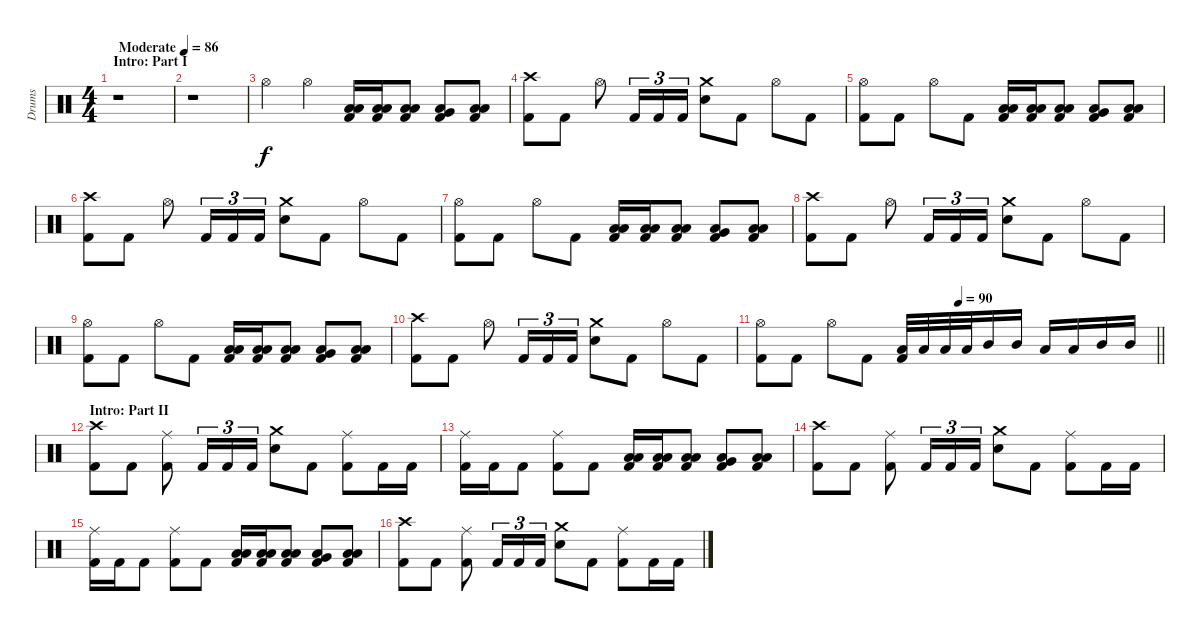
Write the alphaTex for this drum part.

\track ("Drums" "Drums") {instrument percussion}
\staff {score}
\articulation defaults
\ts (4 4)
\section ("" "Intro: Part I")
\tempo (86 "Moderate")
\clef neutral
\ks c
r.1{dy f} |
r.1 |
"Hi-Hat (open)".4 "Hi-Hat (open)".4 ("Low Tom (hit)" "Low Floor Tom (hit)" "Kick (hit) 2").16 ("Low Tom (hit)" "Low Floor Tom (hit)" "Kick (hit) 2").16 ("Low Tom (hit)" "Low Floor Tom (hit)" "Kick (hit) 2").8 ("Very Low Tom (hit)" "Low Floor Tom (hit)" "Kick (hit) 2").8 ("Low Tom (hit)" "Low Floor Tom (hit)" "Kick (hit) 2").8 |
("Crash high (hit)" "Kick (hit) 2").8 "Kick (hit) 2".8 "Hi-Hat (open)".8 "Kick (hit) 2".16{tu (3 2)} "Kick (hit) 2".16{tu (3 2)} "Kick (hit) 2".16{tu (3 2)} ("Crash medium (hit)" "Electric Snare (hit)").8 "Kick (hit) 2".8 "Hi-Hat (open)".8 "Kick (hit) 2".8 |
("Hi-Hat (open)" "Kick (hit) 2").8 "Kick (hit) 2".8 "Hi-Hat (open)".8 "Kick (hit) 2".8 ("Low Tom (hit)" "Low Floor Tom (hit)" "Kick (hit) 2").16 ("Low Tom (hit)" "Low Floor Tom (hit)" "Kick (hit) 2").16 ("Low Tom (hit)" "Low Floor Tom (hit)" "Kick (hit) 2").8 ("Very Low Tom (hit)" "Low Floor Tom (hit)" "Kick (hit) 2").8 ("Low Tom (hit)" "Low Floor Tom (hit)" "Kick (hit) 2").8 |
("Crash high (hit)" "Kick (hit) 2").8 "Kick (hit) 2".8 "Hi-Hat (open)".8 "Kick (hit) 2".16{tu (3 2)} "Kick (hit) 2".16{tu (3 2)} "Kick (hit) 2".16{tu (3 2)} ("Crash medium (hit)" "Electric Snare (hit)").8 "Kick (hit) 2".8 "Hi-Hat (open)".8 "Kick (hit) 2".8 |
("Hi-Hat (open)" "Kick (hit) 2").8 "Kick (hit) 2".8 "Hi-Hat (open)".8 "Kick (hit) 2".8 ("Low Tom (hit)" "Low Floor Tom (hit)" "Kick (hit) 2").16 ("Low Tom (hit)" "Low Floor Tom (hit)" "Kick (hit) 2").16 ("Low Tom (hit)" "Low Floor Tom (hit)" "Kick (hit) 2").8 ("Very Low Tom (hit)" "Low Floor Tom (hit)" "Kick (hit) 2").8 ("Low Tom (hit)" "Low Floor Tom (hit)" "Kick (hit) 2").8 |
("Crash high (hit)" "Kick (hit) 2").8 "Kick (hit) 2".8 "Hi-Hat (open)".8 "Kick (hit) 2".16{tu (3 2)} "Kick (hit) 2".16{tu (3 2)} "Kick (hit) 2".16{tu (3 2)} ("Crash medium (hit)" "Electric Snare (hit)").8 "Kick (hit) 2".8 "Hi-Hat (open)".8 "Kick (hit) 2".8 |
("Hi-Hat (open)" "Kick (hit) 2").8 "Kick (hit) 2".8 "Hi-Hat (open)".8 "Kick (hit) 2".8 ("Low Tom (hit)" "Low Floor Tom (hit)" "Kick (hit) 2").16 ("Low Tom (hit)" "Low Floor Tom (hit)" "Kick (hit) 2").16 ("Low Tom (hit)" "Low Floor Tom (hit)" "Kick (hit) 2").8 ("Very Low Tom (hit)" "Low Floor Tom (hit)" "Kick (hit) 2").8 ("Low Tom (hit)" "Low Floor Tom (hit)" "Kick (hit) 2").8 |
("Crash high (hit)" "Kick (hit) 2").8 "Kick (hit) 2".8 "Hi-Hat (open)".8 "Kick (hit) 2".16{tu (3 2)} "Kick (hit) 2".16{tu (3 2)} "Kick (hit) 2".16{tu (3 2)} ("Crash medium (hit)" "Electric Snare (hit)").8 "Kick (hit) 2".8 "Hi-Hat (open)".8 "Kick (hit) 2".8 |
\tempo (90 0.5)
\barLineRight lightlight
("Hi-Hat (open)" "Kick (hit) 2").8 "Kick (hit) 2".8 "Hi-Hat (open)".8 "Kick (hit) 2".8 ("Low Tom (hit)" "Kick (hit) 2").32 "Low Tom (hit)".32 "Low Tom (hit)".32 "Low Tom (hit)".32 "Mid Tom (hit)".16 "Mid Tom (hit)".16 "Low Tom (hit)".16 "Low Tom (hit)".16 "Mid Tom (hit)".16 "Mid Tom (hit)".16 |
\section ("" "Intro: Part II")
("Crash high (hit)" "Kick (hit) 2").8 "Kick (hit) 2".8 ("Ride (middle)" "Kick (hit) 2").8 "Kick (hit) 2".16{tu (3 2)} "Kick (hit) 2".16{tu (3 2)} "Kick (hit) 2".16{tu (3 2)} ("Crash medium (hit)" "Electric Snare (hit)").8 "Kick (hit) 2".8 ("Ride (middle)" "Kick (hit) 2").8 "Kick (hit) 2".16 "Kick (hit) 2".16 |
("Ride (middle)" "Kick (hit) 2").16 "Kick (hit) 2".16 "Kick (hit) 2".8 ("Ride (middle)" "Kick (hit) 2").8 "Kick (hit) 2".8 ("Low Tom (hit)" "Low Floor Tom (hit)" "Kick (hit) 2").16 ("Low Tom (hit)" "Low Floor Tom (hit)" "Kick (hit) 2").16 ("Low Tom (hit)" "Low Floor Tom (hit)" "Kick (hit) 2").8 ("Very Low Tom (hit)" "Low Floor Tom (hit)" "Kick (hit) 2").8 ("Low Tom (hit)" "Low Floor Tom (hit)" "Kick (hit) 2").8 |
("Crash high (hit)" "Kick (hit) 2").8 "Kick (hit) 2".8 ("Ride (middle)" "Kick (hit) 2").8 "Kick (hit) 2".16{tu (3 2)} "Kick (hit) 2".16{tu (3 2)} "Kick (hit) 2".16{tu (3 2)} ("Crash medium (hit)" "Electric Snare (hit)").8 "Kick (hit) 2".8 ("Ride (middle)" "Kick (hit) 2").8 "Kick (hit) 2".16 "Kick (hit) 2".16 |
("Ride (middle)" "Kick (hit) 2").16 "Kick (hit) 2".16 "Kick (hit) 2".8 ("Ride (middle)" "Kick (hit) 2").8 "Kick (hit) 2".8 ("Low Tom (hit)" "Low Floor Tom (hit)" "Kick (hit) 2").16 ("Low Tom (hit)" "Low Floor Tom (hit)" "Kick (hit) 2").16 ("Low Tom (hit)" "Low Floor Tom (hit)" "Kick (hit) 2").8 ("Very Low Tom (hit)" "Low Floor Tom (hit)" "Kick (hit) 2").8 ("Low Tom (hit)" "Low Floor Tom (hit)" "Kick (hit) 2").8 |
("Crash high (hit)" "Kick (hit) 2").8 "Kick (hit) 2".8 ("Ride (middle)" "Kick (hit) 2").8 "Kick (hit) 2".16{tu (3 2)} "Kick (hit) 2".16{tu (3 2)} "Kick (hit) 2".16{tu (3 2)} ("Crash medium (hit)" "Electric Snare (hit)").8 "Kick (hit) 2".8 ("Ride (middle)" "Kick (hit) 2").8 "Kick (hit) 2".16 "Kick (hit) 2".16
